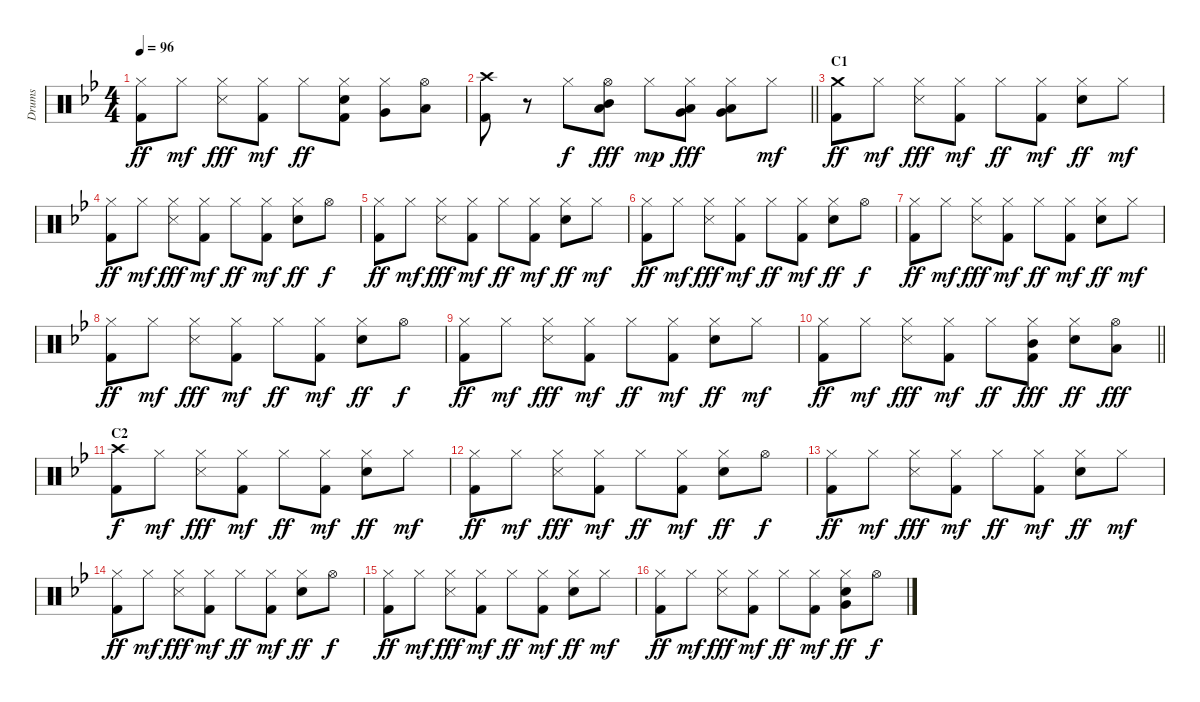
\track ("Drums" "Drums") {instrument percussion}
\staff {score}
\articulation defaults
\ts (4 4)
\tempo 96
\clef neutral
\ks bb
("Hi-Hat (closed)" "Kick (hit) 2").8{dy ff} "Hi-Hat (closed)".8{dy mf} ("Hi-Hat (closed)" "Snare (side stick) 3").8{dy fff} ("Hi-Hat (closed)" "Kick (hit) 2").8{dy mf} "Hi-Hat (closed)".8{dy ff} ("Hi-Hat (closed)" "Electric Snare (hit)" "Kick (hit) 2").8 ("Hi-Hat (closed)" "Very Low Tom (hit)").8 ("Hi-Hat (open)" "Low Tom (hit)").8 |
\barLineRight lightlight
("Crash high (hit)" "Kick (hit) 2").8 r.8 "Hi-Hat (closed)".8{dy f} ("Hi-Hat (open)" "Mid Tom (hit)" "Low Tom (hit)").8{dy fff} "Hi-Hat (closed)".8{dy mp} ("Hi-Hat (closed)" "Low Tom (hit)" "Very Low Tom (hit)").8{dy fff} ("Hi-Hat (closed)" "Very Low Tom (hit)" "Low Floor Tom (hit)").8 "Hi-Hat (closed)".8{dy mf} |
\section ("" "C1")
("Crash medium (hit)" "Kick (hit) 2").8{dy ff} "Hi-Hat (closed)".8{dy mf} ("Hi-Hat (closed)" "Snare (side stick) 3").8{dy fff} ("Hi-Hat (closed)" "Kick (hit) 2").8{dy mf} "Hi-Hat (closed)".8{dy ff} ("Hi-Hat (closed)" "Kick (hit) 2").8{dy mf} ("Hi-Hat (closed)" "Electric Snare (hit)").8{dy ff} "Hi-Hat (closed)".8{dy mf} |
("Hi-Hat (closed)" "Kick (hit) 2").8{dy ff} "Hi-Hat (closed)".8{dy mf} ("Hi-Hat (closed)" "Snare (side stick) 3").8{dy fff} ("Hi-Hat (closed)" "Kick (hit) 2").8{dy mf} "Hi-Hat (closed)".8{dy ff} ("Hi-Hat (closed)" "Kick (hit) 2").8{dy mf} ("Hi-Hat (closed)" "Electric Snare (hit)").8{dy ff} "Hi-Hat (open)".8{dy f} |
("Hi-Hat (closed)" "Kick (hit) 2").8{dy ff} "Hi-Hat (closed)".8{dy mf} ("Hi-Hat (closed)" "Snare (side stick) 3").8{dy fff} ("Hi-Hat (closed)" "Kick (hit) 2").8{dy mf} "Hi-Hat (closed)".8{dy ff} ("Hi-Hat (closed)" "Kick (hit) 2").8{dy mf} ("Hi-Hat (closed)" "Electric Snare (hit)").8{dy ff} "Hi-Hat (closed)".8{dy mf} |
("Hi-Hat (closed)" "Kick (hit) 2").8{dy ff} "Hi-Hat (closed)".8{dy mf} ("Hi-Hat (closed)" "Snare (side stick) 3").8{dy fff} ("Hi-Hat (closed)" "Kick (hit) 2").8{dy mf} "Hi-Hat (closed)".8{dy ff} ("Hi-Hat (closed)" "Kick (hit) 2").8{dy mf} ("Hi-Hat (closed)" "Electric Snare (hit)").8{dy ff} "Hi-Hat (open)".8{dy f} |
("Hi-Hat (closed)" "Kick (hit) 2").8{dy ff} "Hi-Hat (closed)".8{dy mf} ("Hi-Hat (closed)" "Snare (side stick) 3").8{dy fff} ("Hi-Hat (closed)" "Kick (hit) 2").8{dy mf} "Hi-Hat (closed)".8{dy ff} ("Hi-Hat (closed)" "Kick (hit) 2").8{dy mf} ("Hi-Hat (closed)" "Electric Snare (hit)").8{dy ff} "Hi-Hat (closed)".8{dy mf} |
("Hi-Hat (closed)" "Kick (hit) 2").8{dy ff} "Hi-Hat (closed)".8{dy mf} ("Hi-Hat (closed)" "Snare (side stick) 3").8{dy fff} ("Hi-Hat (closed)" "Kick (hit) 2").8{dy mf} "Hi-Hat (closed)".8{dy ff} ("Hi-Hat (closed)" "Kick (hit) 2").8{dy mf} ("Hi-Hat (closed)" "Electric Snare (hit)").8{dy ff} "Hi-Hat (open)".8{dy f} |
("Hi-Hat (closed)" "Kick (hit) 2").8{dy ff} "Hi-Hat (closed)".8{dy mf} ("Hi-Hat (closed)" "Snare (side stick) 3").8{dy fff} ("Hi-Hat (closed)" "Kick (hit) 2").8{dy mf} "Hi-Hat (closed)".8{dy ff} ("Hi-Hat (closed)" "Kick (hit) 2").8{dy mf} ("Hi-Hat (closed)" "Electric Snare (hit)").8{dy ff} "Hi-Hat (closed)".8{dy mf} |
\barLineRight lightlight
("Hi-Hat (closed)" "Kick (hit) 2").8{dy ff} "Hi-Hat (closed)".8{dy mf} ("Hi-Hat (closed)" "Snare (side stick) 3").8{dy fff} ("Hi-Hat (closed)" "Kick (hit) 2").8{dy mf} "Hi-Hat (closed)".8{dy ff} ("Hi-Hat (closed)" "Mid Tom (hit)" "Kick (hit) 2").8{dy fff} ("Hi-Hat (closed)" "Electric Snare (hit)").8{dy ff} ("Hi-Hat (open)" "Low Tom (hit)").8{dy fff} |
\section ("" "C2")
("Crash high (hit)" "Kick (hit) 2").8{dy f} "Hi-Hat (closed)".8{dy mf} ("Hi-Hat (closed)" "Snare (side stick) 3").8{dy fff} ("Hi-Hat (closed)" "Kick (hit) 2").8{dy mf} "Hi-Hat (closed)".8{dy ff} ("Hi-Hat (closed)" "Kick (hit) 2").8{dy mf} ("Hi-Hat (closed)" "Electric Snare (hit)").8{dy ff} "Hi-Hat (closed)".8{dy mf} |
("Hi-Hat (closed)" "Kick (hit) 2").8{dy ff} "Hi-Hat (closed)".8{dy mf} ("Hi-Hat (closed)" "Snare (side stick) 3").8{dy fff} ("Hi-Hat (closed)" "Kick (hit) 2").8{dy mf} "Hi-Hat (closed)".8{dy ff} ("Hi-Hat (closed)" "Kick (hit) 2").8{dy mf} ("Hi-Hat (closed)" "Electric Snare (hit)").8{dy ff} "Hi-Hat (open)".8{dy f} |
("Hi-Hat (closed)" "Kick (hit) 2").8{dy ff} "Hi-Hat (closed)".8{dy mf} ("Hi-Hat (closed)" "Snare (side stick) 3").8{dy fff} ("Hi-Hat (closed)" "Kick (hit) 2").8{dy mf} "Hi-Hat (closed)".8{dy ff} ("Hi-Hat (closed)" "Kick (hit) 2").8{dy mf} ("Hi-Hat (closed)" "Electric Snare (hit)").8{dy ff} "Hi-Hat (closed)".8{dy mf} |
("Hi-Hat (closed)" "Kick (hit) 2").8{dy ff} "Hi-Hat (closed)".8{dy mf} ("Hi-Hat (closed)" "Snare (side stick) 3").8{dy fff} ("Hi-Hat (closed)" "Kick (hit) 2").8{dy mf} "Hi-Hat (closed)".8{dy ff} ("Hi-Hat (closed)" "Kick (hit) 2").8{dy mf} ("Hi-Hat (closed)" "Electric Snare (hit)").8{dy ff} "Hi-Hat (open)".8{dy f} |
("Hi-Hat (closed)" "Kick (hit) 2").8{dy ff} "Hi-Hat (closed)".8{dy mf} ("Hi-Hat (closed)" "Snare (side stick) 3").8{dy fff} ("Hi-Hat (closed)" "Kick (hit) 2").8{dy mf} "Hi-Hat (closed)".8{dy ff} ("Hi-Hat (closed)" "Kick (hit) 2").8{dy mf} ("Hi-Hat (closed)" "Electric Snare (hit)").8{dy ff} "Hi-Hat (closed)".8{dy mf} |
("Hi-Hat (closed)" "Kick (hit) 2").8{dy ff} "Hi-Hat (closed)".8{dy mf} ("Hi-Hat (closed)" "Snare (side stick) 3").8{dy fff} ("Hi-Hat (closed)" "Kick (hit) 2").8{dy mf} "Hi-Hat (closed)".8{dy ff} ("Hi-Hat (closed)" "Kick (hit) 2").8{dy mf} ("Hi-Hat (closed)" "Very Low Tom (hit)" "Electric Snare (hit)").8{dy ff} "Hi-Hat (open)".8{dy f}
